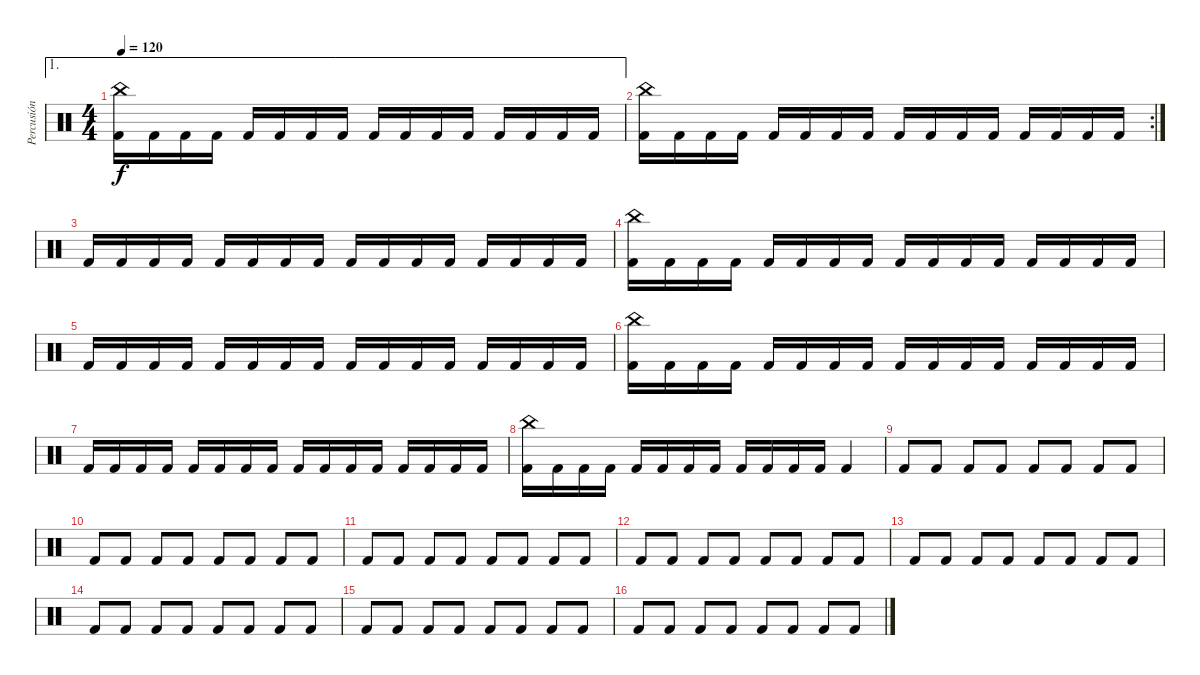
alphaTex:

\track ("Percusión" "Percusión") {instrument percussion}
\staff {score}
\articulation defaults
\ae 1
\ts (4 4)
\tempo 120
\clef neutral
\ks c
("Kick (hit) 2" "China (hit)").16{dy f} "Kick (hit) 2".16 "Kick (hit) 2".16 "Kick (hit) 2".16 "Kick (hit) 2".16 "Kick (hit) 2".16 "Kick (hit) 2".16 "Kick (hit) 2".16 "Kick (hit) 2".16 "Kick (hit) 2".16 "Kick (hit) 2".16 "Kick (hit) 2".16 "Kick (hit) 2".16 "Kick (hit) 2".16 "Kick (hit) 2".16 "Kick (hit) 2".16 |
\rc 2
("Kick (hit) 2" "China (hit)").16 "Kick (hit) 2".16 "Kick (hit) 2".16 "Kick (hit) 2".16 "Kick (hit) 2".16 "Kick (hit) 2".16 "Kick (hit) 2".16 "Kick (hit) 2".16 "Kick (hit) 2".16 "Kick (hit) 2".16 "Kick (hit) 2".16 "Kick (hit) 2".16 "Kick (hit) 2".16 "Kick (hit) 2".16 "Kick (hit) 2".16 "Kick (hit) 2".16 |
"Kick (hit) 2".16 "Kick (hit) 2".16 "Kick (hit) 2".16 "Kick (hit) 2".16 "Kick (hit) 2".16 "Kick (hit) 2".16 "Kick (hit) 2".16 "Kick (hit) 2".16 "Kick (hit) 2".16 "Kick (hit) 2".16 "Kick (hit) 2".16 "Kick (hit) 2".16 "Kick (hit) 2".16 "Kick (hit) 2".16 "Kick (hit) 2".16 "Kick (hit) 2".16 |
("Kick (hit) 2" "China (hit)").16 "Kick (hit) 2".16 "Kick (hit) 2".16 "Kick (hit) 2".16 "Kick (hit) 2".16 "Kick (hit) 2".16 "Kick (hit) 2".16 "Kick (hit) 2".16 "Kick (hit) 2".16 "Kick (hit) 2".16 "Kick (hit) 2".16 "Kick (hit) 2".16 "Kick (hit) 2".16 "Kick (hit) 2".16 "Kick (hit) 2".16 "Kick (hit) 2".16 |
"Kick (hit) 2".16 "Kick (hit) 2".16 "Kick (hit) 2".16 "Kick (hit) 2".16 "Kick (hit) 2".16 "Kick (hit) 2".16 "Kick (hit) 2".16 "Kick (hit) 2".16 "Kick (hit) 2".16 "Kick (hit) 2".16 "Kick (hit) 2".16 "Kick (hit) 2".16 "Kick (hit) 2".16 "Kick (hit) 2".16 "Kick (hit) 2".16 "Kick (hit) 2".16 |
("Kick (hit) 2" "China (hit)").16 "Kick (hit) 2".16 "Kick (hit) 2".16 "Kick (hit) 2".16 "Kick (hit) 2".16 "Kick (hit) 2".16 "Kick (hit) 2".16 "Kick (hit) 2".16 "Kick (hit) 2".16 "Kick (hit) 2".16 "Kick (hit) 2".16 "Kick (hit) 2".16 "Kick (hit) 2".16 "Kick (hit) 2".16 "Kick (hit) 2".16 "Kick (hit) 2".16 |
"Kick (hit) 2".16 "Kick (hit) 2".16 "Kick (hit) 2".16 "Kick (hit) 2".16 "Kick (hit) 2".16 "Kick (hit) 2".16 "Kick (hit) 2".16 "Kick (hit) 2".16 "Kick (hit) 2".16 "Kick (hit) 2".16 "Kick (hit) 2".16 "Kick (hit) 2".16 "Kick (hit) 2".16 "Kick (hit) 2".16 "Kick (hit) 2".16 "Kick (hit) 2".16 |
("Kick (hit) 2" "China (hit)").16 "Kick (hit) 2".16 "Kick (hit) 2".16 "Kick (hit) 2".16 "Kick (hit) 2".16 "Kick (hit) 2".16 "Kick (hit) 2".16 "Kick (hit) 2".16 "Kick (hit) 2".16 "Kick (hit) 2".16 "Kick (hit) 2".16 "Kick (hit) 2".16 "Kick (hit) 2".4 |
"Kick (hit) 2".8 "Kick (hit) 2".8 "Kick (hit) 2".8 "Kick (hit) 2".8 "Kick (hit) 2".8 "Kick (hit) 2".8 "Kick (hit) 2".8 "Kick (hit) 2".8 |
"Kick (hit) 2".8 "Kick (hit) 2".8 "Kick (hit) 2".8 "Kick (hit) 2".8 "Kick (hit) 2".8 "Kick (hit) 2".8 "Kick (hit) 2".8 "Kick (hit) 2".8 |
"Kick (hit) 2".8 "Kick (hit) 2".8 "Kick (hit) 2".8 "Kick (hit) 2".8 "Kick (hit) 2".8 "Kick (hit) 2".8 "Kick (hit) 2".8 "Kick (hit) 2".8 |
"Kick (hit) 2".8 "Kick (hit) 2".8 "Kick (hit) 2".8 "Kick (hit) 2".8 "Kick (hit) 2".8 "Kick (hit) 2".8 "Kick (hit) 2".8 "Kick (hit) 2".8 |
"Kick (hit) 2".8 "Kick (hit) 2".8 "Kick (hit) 2".8 "Kick (hit) 2".8 "Kick (hit) 2".8 "Kick (hit) 2".8 "Kick (hit) 2".8 "Kick (hit) 2".8 |
"Kick (hit) 2".8 "Kick (hit) 2".8 "Kick (hit) 2".8 "Kick (hit) 2".8 "Kick (hit) 2".8 "Kick (hit) 2".8 "Kick (hit) 2".8 "Kick (hit) 2".8 |
"Kick (hit) 2".8 "Kick (hit) 2".8 "Kick (hit) 2".8 "Kick (hit) 2".8 "Kick (hit) 2".8 "Kick (hit) 2".8 "Kick (hit) 2".8 "Kick (hit) 2".8 |
"Kick (hit) 2".8 "Kick (hit) 2".8 "Kick (hit) 2".8 "Kick (hit) 2".8 "Kick (hit) 2".8 "Kick (hit) 2".8 "Kick (hit) 2".8 "Kick (hit) 2".8
